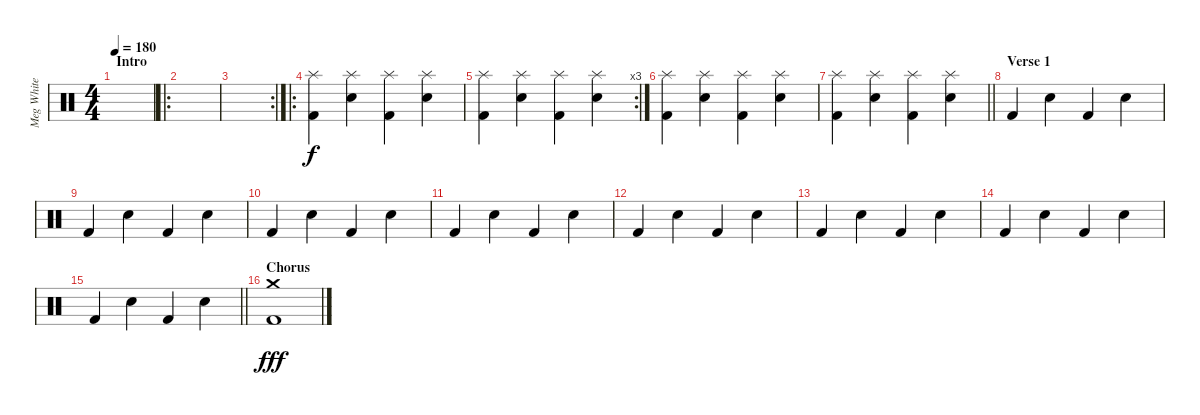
\track ("Meg White (Drums)" "Meg White ") {instrument percussion}
\staff {score}
\articulation defaults
\ts (4 4)
\section ("" "Intro")
\tempo 180
\clef neutral
\ks c
|
\ro
|
\rc 2
|
\ro
("Kick (hit) 2" "Splash (hit)").4 ("Snare (hit) 2" "Splash (hit)").4 ("Kick (hit) 2" "Splash (hit)").4 ("Snare (hit) 2" "Splash (hit)").4 |
\rc 3
("Kick (hit) 2" "Splash (hit)").4 ("Snare (hit) 2" "Splash (hit)").4 ("Kick (hit) 2" "Splash (hit)").4 ("Snare (hit) 2" "Splash (hit)").4 |
("Kick (hit) 2" "Splash (hit)").4 ("Snare (hit) 2" "Splash (hit)").4 ("Kick (hit) 2" "Splash (hit)").4 ("Snare (hit) 2" "Splash (hit)").4 |
\barLineRight lightlight
("Kick (hit) 2" "Splash (hit)").4 ("Snare (hit) 2" "Splash (hit)").4 ("Kick (hit) 2" "Splash (hit)").4 ("Snare (hit) 2" "Splash (hit)").4 |
\section ("" "Verse 1")
"Kick (hit) 2".4{dy f} "Snare (hit) 2".4 "Kick (hit) 2".4 "Snare (hit) 2".4 |
"Kick (hit) 2".4 "Snare (hit) 2".4 "Kick (hit) 2".4 "Snare (hit) 2".4 |
"Kick (hit) 2".4 "Snare (hit) 2".4 "Kick (hit) 2".4 "Snare (hit) 2".4 |
"Kick (hit) 2".4 "Snare (hit) 2".4 "Kick (hit) 2".4 "Snare (hit) 2".4 |
"Kick (hit) 2".4 "Snare (hit) 2".4 "Kick (hit) 2".4 "Snare (hit) 2".4 |
"Kick (hit) 2".4 "Snare (hit) 2".4 "Kick (hit) 2".4 "Snare (hit) 2".4 |
"Kick (hit) 2".4 "Snare (hit) 2".4 "Kick (hit) 2".4 "Snare (hit) 2".4 |
\barLineRight lightlight "Kick (hit) 2".4 "Snare (hit) 2".4 "Kick (hit) 2".4 "Snare (hit) 2".4
|
\section ("" "Chorus")
("Kick (hit) 2" "Crash medium (hit)").1{dy fff}
